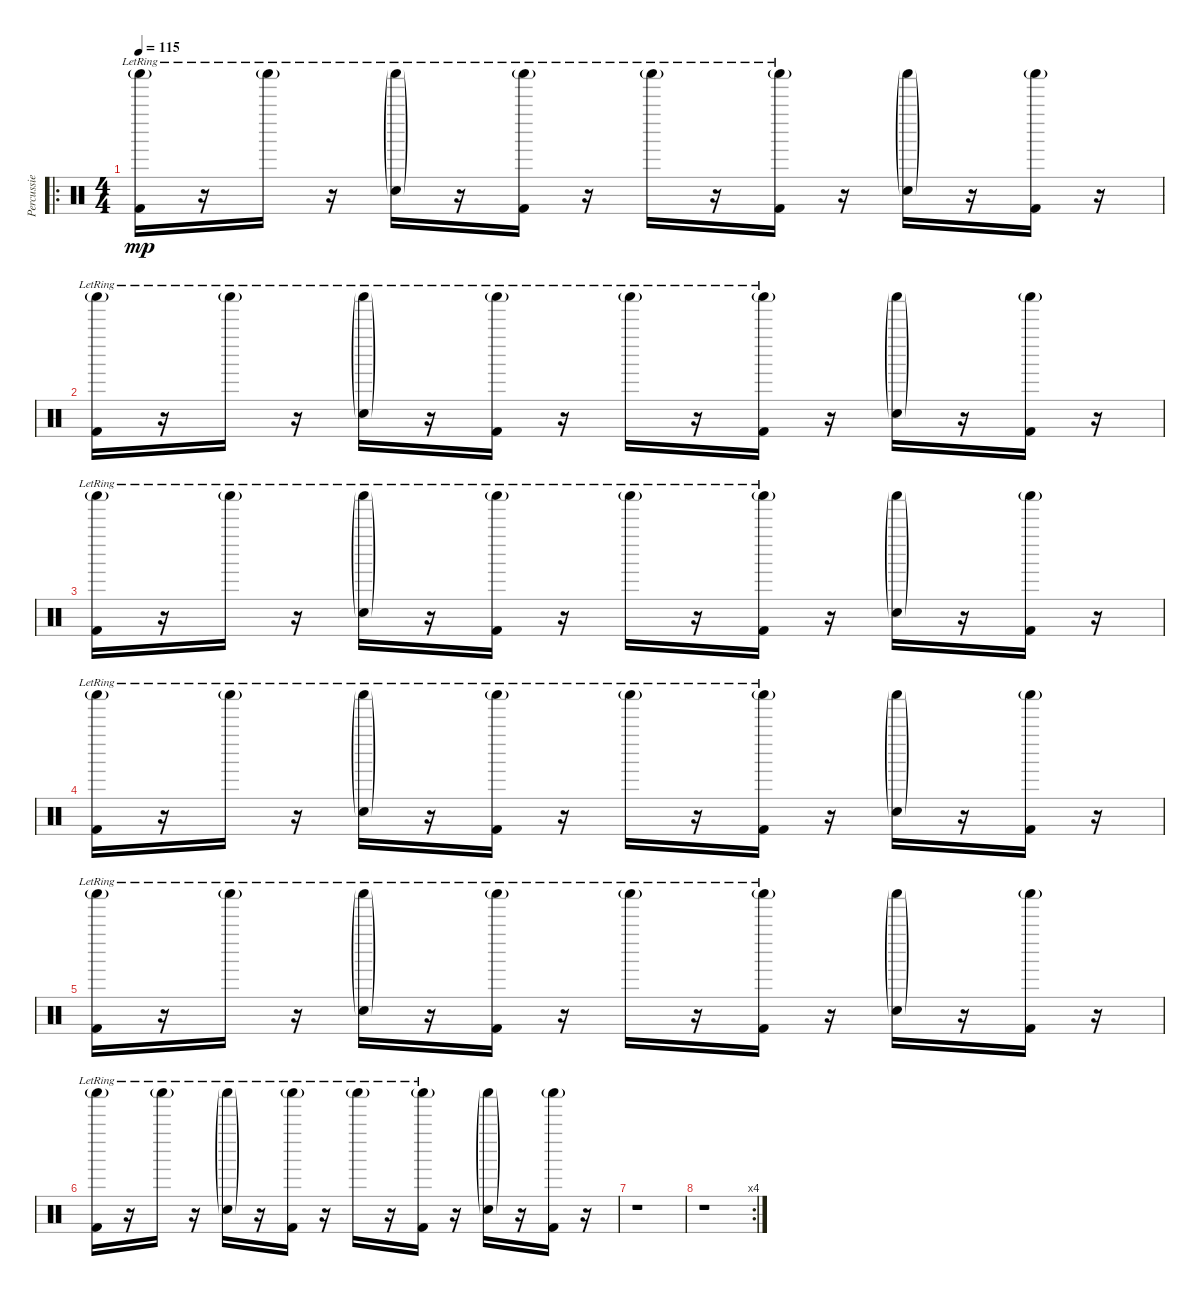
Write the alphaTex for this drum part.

\track ("Percussie" "Percussie") {instrument percussion}
\staff {score}
\articulation defaults
\ro
\ts (4 4)
\tempo 115
\clef neutral
\ks c
("Shaker (hit)"{g lr} "Kick (hit) 2").16{dy mp} r.16 "Shaker (hit)"{g lr}.16 r.16 ("Shaker (hit)"{g lr} "Snare (hit) 2"{g}).16 r.16 ("Shaker (hit)"{g lr} "Kick (hit) 2").16 r.16 "Shaker (hit)"{g lr}.16 r.16 ("Shaker (hit)"{g lr} "Kick (hit) 2").16 r.16 ("Shaker (hit)"{g} "Snare (hit) 2"{g}).16 r.16 ("Shaker (hit)"{g} "Kick (hit) 2").16 r.16 |
("Shaker (hit)"{g lr} "Kick (hit) 2").16 r.16 "Shaker (hit)"{g lr}.16 r.16 ("Shaker (hit)"{g lr} "Snare (hit) 2"{g}).16 r.16 ("Shaker (hit)"{g lr} "Kick (hit) 2").16 r.16 "Shaker (hit)"{g lr}.16 r.16 ("Shaker (hit)"{g lr} "Kick (hit) 2").16 r.16 ("Shaker (hit)"{g} "Snare (hit) 2"{g}).16 r.16 ("Shaker (hit)"{g} "Kick (hit) 2").16 r.16 |
("Shaker (hit)"{g lr} "Kick (hit) 2").16 r.16 "Shaker (hit)"{g lr}.16 r.16 ("Shaker (hit)"{g lr} "Snare (hit) 2"{g}).16 r.16 ("Shaker (hit)"{g lr} "Kick (hit) 2").16 r.16 "Shaker (hit)"{g lr}.16 r.16 ("Shaker (hit)"{g lr} "Kick (hit) 2").16 r.16 ("Shaker (hit)"{g} "Snare (hit) 2"{g}).16 r.16 ("Shaker (hit)"{g} "Kick (hit) 2").16 r.16 |
("Shaker (hit)"{g lr} "Kick (hit) 2").16 r.16 "Shaker (hit)"{g lr}.16 r.16 ("Shaker (hit)"{g lr} "Snare (hit) 2"{g}).16 r.16 ("Shaker (hit)"{g lr} "Kick (hit) 2").16 r.16 "Shaker (hit)"{g lr}.16 r.16 ("Shaker (hit)"{g lr} "Kick (hit) 2").16 r.16 ("Shaker (hit)"{g} "Snare (hit) 2"{g}).16 r.16 ("Shaker (hit)"{g} "Kick (hit) 2").16 r.16 |
("Shaker (hit)"{g lr} "Kick (hit) 2").16 r.16 "Shaker (hit)"{g lr}.16 r.16 ("Shaker (hit)"{g lr} "Snare (hit) 2"{g}).16 r.16 ("Shaker (hit)"{g lr} "Kick (hit) 2").16 r.16 "Shaker (hit)"{g lr}.16 r.16 ("Shaker (hit)"{g lr} "Kick (hit) 2").16 r.16 ("Shaker (hit)"{g} "Snare (hit) 2"{g}).16 r.16 ("Shaker (hit)"{g} "Kick (hit) 2").16 r.16 |
("Shaker (hit)"{g lr} "Kick (hit) 2").16 r.16 "Shaker (hit)"{g lr}.16 r.16 ("Shaker (hit)"{g lr} "Snare (hit) 2"{g}).16 r.16 ("Shaker (hit)"{g lr} "Kick (hit) 2").16 r.16 "Shaker (hit)"{g lr}.16 r.16 ("Shaker (hit)"{g lr} "Kick (hit) 2").16 r.16 ("Shaker (hit)"{g} "Snare (hit) 2"{g}).16 r.16 ("Shaker (hit)"{g} "Kick (hit) 2").16 r.16 |
r.1 |
\rc 4
r.1
